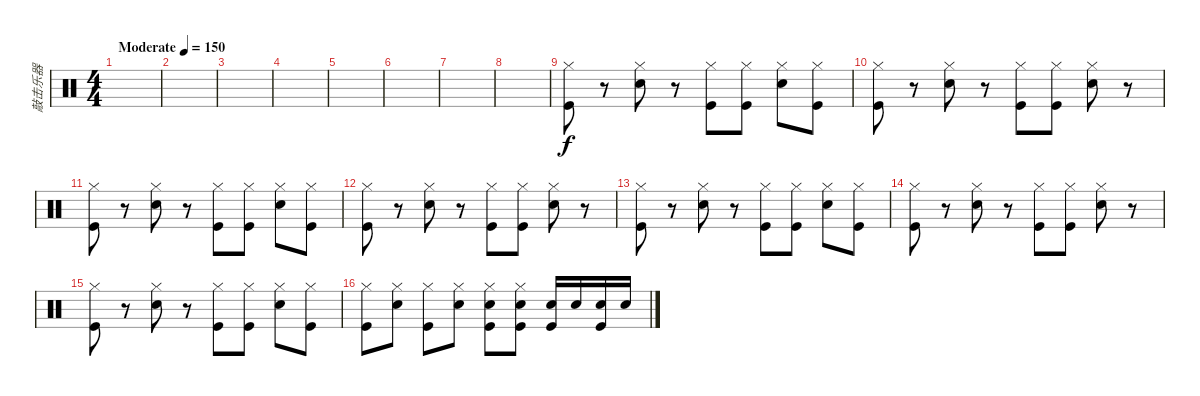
\track ("敲击乐器" "敲击乐器") {instrument percussion}
\staff {score}
\articulation defaults
\ts (4 4)
\tempo (150 "Moderate")
\clef neutral
\ks c
|
|
|
|
|
|
|
|
("Hi-Hat (closed)" "Kick (hit)").8 r.8 ("Hi-Hat (closed)" "Electric Snare (hit)").8 r.8 ("Hi-Hat (closed)" "Kick (hit)").8 ("Hi-Hat (closed)" "Kick (hit)").8 ("Hi-Hat (closed)" "Electric Snare (hit)").8 ("Hi-Hat (closed)" "Kick (hit)").8 |
("Hi-Hat (closed)" "Kick (hit)").8 r.8 ("Hi-Hat (closed)" "Electric Snare (hit)").8 r.8 ("Hi-Hat (closed)" "Kick (hit)").8 ("Hi-Hat (closed)" "Kick (hit)").8 ("Hi-Hat (closed)" "Electric Snare (hit)").8 r.8 |
("Hi-Hat (closed)" "Kick (hit)").8 r.8 ("Hi-Hat (closed)" "Electric Snare (hit)").8 r.8 ("Hi-Hat (closed)" "Kick (hit)").8 ("Hi-Hat (closed)" "Kick (hit)").8 ("Hi-Hat (closed)" "Electric Snare (hit)").8 ("Hi-Hat (closed)" "Kick (hit)").8 |
("Hi-Hat (closed)" "Kick (hit)").8 r.8 ("Hi-Hat (closed)" "Electric Snare (hit)").8 r.8 ("Hi-Hat (closed)" "Kick (hit)").8 ("Hi-Hat (closed)" "Kick (hit)").8 ("Hi-Hat (closed)" "Electric Snare (hit)").8 r.8 |
("Hi-Hat (closed)" "Kick (hit)").8 r.8 ("Hi-Hat (closed)" "Electric Snare (hit)").8 r.8 ("Hi-Hat (closed)" "Kick (hit)").8 ("Hi-Hat (closed)" "Kick (hit)").8 ("Hi-Hat (closed)" "Electric Snare (hit)").8 ("Hi-Hat (closed)" "Kick (hit)").8 |
("Hi-Hat (closed)" "Kick (hit)").8 r.8 ("Hi-Hat (closed)" "Electric Snare (hit)").8 r.8 ("Hi-Hat (closed)" "Kick (hit)").8 ("Hi-Hat (closed)" "Kick (hit)").8 ("Hi-Hat (closed)" "Electric Snare (hit)").8 r.8 |
("Hi-Hat (closed)" "Kick (hit)").8 r.8 ("Hi-Hat (closed)" "Electric Snare (hit)").8 r.8 ("Hi-Hat (closed)" "Kick (hit)").8 ("Hi-Hat (closed)" "Kick (hit)").8 ("Hi-Hat (closed)" "Electric Snare (hit)").8 ("Hi-Hat (closed)" "Kick (hit)").8 |
("Hi-Hat (closed)" "Kick (hit)").8 ("Hi-Hat (closed)" "Electric Snare (hit)").8 ("Hi-Hat (closed)" "Kick (hit)").8 ("Hi-Hat (closed)" "Electric Snare (hit)").8 ("Hi-Hat (closed)" "Electric Snare (hit)" "Kick (hit)").8 ("Hi-Hat (closed)" "Electric Snare (hit)" "Kick (hit)").8 ("Electric Snare (hit)" "Kick (hit)").16 "Electric Snare (hit)".16 ("Electric Snare (hit)" "Kick (hit)").16 "Electric Snare (hit)".16
